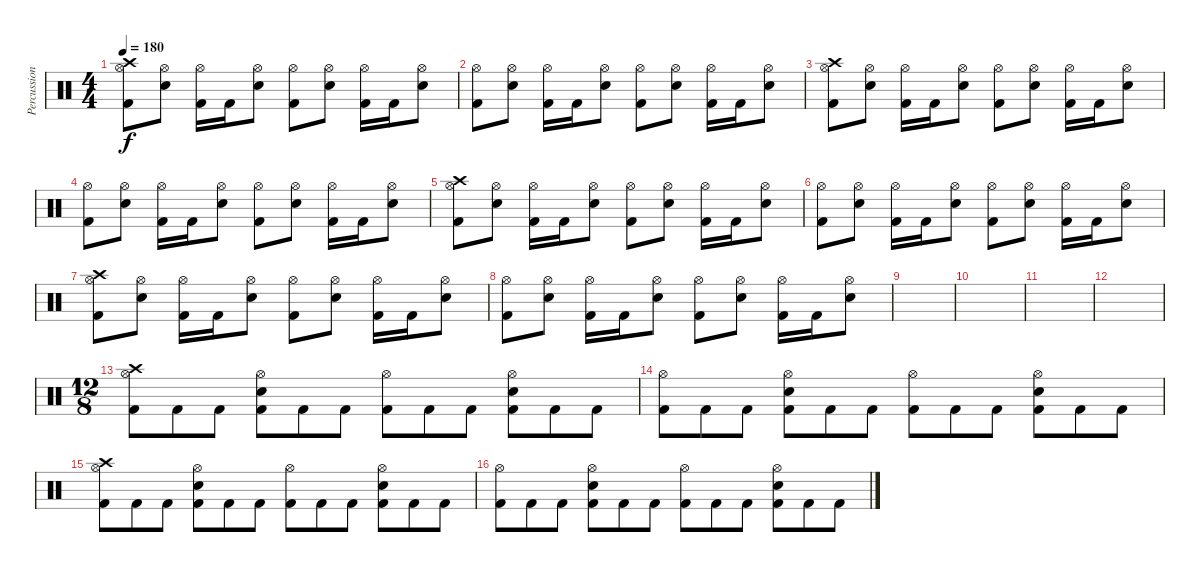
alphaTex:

\track ("Percussion" "Percussion") {instrument percussion}
\staff {score}
\articulation defaults
\ts (4 4)
\tempo 180
\clef neutral
\ks c
("Crash high (hit)" "Hi-Hat (open)" "Kick (hit) 2").8{dy f} ("Hi-Hat (open)" "Snare (hit) 2").8 ("Hi-Hat (open)" "Kick (hit) 2").16 "Kick (hit) 2".16 ("Hi-Hat (open)" "Snare (hit) 2").8 ("Hi-Hat (open)" "Kick (hit) 2").8 ("Hi-Hat (open)" "Snare (hit) 2").8 ("Hi-Hat (open)" "Kick (hit) 2").16 "Kick (hit) 2".16 ("Hi-Hat (open)" "Snare (hit) 2").8 |
("Hi-Hat (open)" "Kick (hit) 2").8 ("Hi-Hat (open)" "Snare (hit) 2").8 ("Hi-Hat (open)" "Kick (hit) 2").16 "Kick (hit) 2".16 ("Hi-Hat (open)" "Snare (hit) 2").8 ("Hi-Hat (open)" "Kick (hit) 2").8 ("Hi-Hat (open)" "Snare (hit) 2").8 ("Hi-Hat (open)" "Kick (hit) 2").16 "Kick (hit) 2".16 ("Hi-Hat (open)" "Snare (hit) 2").8 |
("Crash high (hit)" "Hi-Hat (open)" "Kick (hit) 2").8 ("Hi-Hat (open)" "Snare (hit) 2").8 ("Hi-Hat (open)" "Kick (hit) 2").16 "Kick (hit) 2".16 ("Hi-Hat (open)" "Snare (hit) 2").8 ("Hi-Hat (open)" "Kick (hit) 2").8 ("Hi-Hat (open)" "Snare (hit) 2").8 ("Hi-Hat (open)" "Kick (hit) 2").16 "Kick (hit) 2".16 ("Hi-Hat (open)" "Snare (hit) 2").8 |
("Hi-Hat (open)" "Kick (hit) 2").8 ("Hi-Hat (open)" "Snare (hit) 2").8 ("Hi-Hat (open)" "Kick (hit) 2").16 "Kick (hit) 2".16 ("Hi-Hat (open)" "Snare (hit) 2").8 ("Hi-Hat (open)" "Kick (hit) 2").8 ("Hi-Hat (open)" "Snare (hit) 2").8 ("Hi-Hat (open)" "Kick (hit) 2").16 "Kick (hit) 2".16 ("Hi-Hat (open)" "Snare (hit) 2").8 |
("Crash high (hit)" "Hi-Hat (open)" "Kick (hit) 2").8 ("Hi-Hat (open)" "Snare (hit) 2").8 ("Hi-Hat (open)" "Kick (hit) 2").16 "Kick (hit) 2".16 ("Hi-Hat (open)" "Snare (hit) 2").8 ("Hi-Hat (open)" "Kick (hit) 2").8 ("Hi-Hat (open)" "Snare (hit) 2").8 ("Hi-Hat (open)" "Kick (hit) 2").16 "Kick (hit) 2".16 ("Hi-Hat (open)" "Snare (hit) 2").8 |
("Hi-Hat (open)" "Kick (hit) 2").8 ("Hi-Hat (open)" "Snare (hit) 2").8 ("Hi-Hat (open)" "Kick (hit) 2").16 "Kick (hit) 2".16 ("Hi-Hat (open)" "Snare (hit) 2").8 ("Hi-Hat (open)" "Kick (hit) 2").8 ("Hi-Hat (open)" "Snare (hit) 2").8 ("Hi-Hat (open)" "Kick (hit) 2").16 "Kick (hit) 2".16 ("Hi-Hat (open)" "Snare (hit) 2").8 |
("Crash high (hit)" "Hi-Hat (open)" "Kick (hit) 2").8 ("Hi-Hat (open)" "Snare (hit) 2").8 ("Hi-Hat (open)" "Kick (hit) 2").16 "Kick (hit) 2".16 ("Hi-Hat (open)" "Snare (hit) 2").8 ("Hi-Hat (open)" "Kick (hit) 2").8 ("Hi-Hat (open)" "Snare (hit) 2").8 ("Hi-Hat (open)" "Kick (hit) 2").16 "Kick (hit) 2".16 ("Hi-Hat (open)" "Snare (hit) 2").8 |
("Hi-Hat (open)" "Kick (hit) 2").8 ("Hi-Hat (open)" "Snare (hit) 2").8 ("Hi-Hat (open)" "Kick (hit) 2").16 "Kick (hit) 2".16 ("Hi-Hat (open)" "Snare (hit) 2").8 ("Hi-Hat (open)" "Kick (hit) 2").8 ("Hi-Hat (open)" "Snare (hit) 2").8 ("Hi-Hat (open)" "Kick (hit) 2").16 "Kick (hit) 2".16 ("Hi-Hat (open)" "Snare (hit) 2").8 |
|
|
|
|
\ts (12 8)
("Crash high (hit)" "Hi-Hat (open)" "Kick (hit) 2").8 "Kick (hit) 2".8 "Kick (hit) 2".8 ("Hi-Hat (open)" "Snare (hit) 2" "Kick (hit) 2").8 "Kick (hit) 2".8 "Kick (hit) 2".8 ("Hi-Hat (open)" "Kick (hit) 2").8 "Kick (hit) 2".8 "Kick (hit) 2".8 ("Hi-Hat (open)" "Snare (hit) 2" "Kick (hit) 2").8 "Kick (hit) 2".8 "Kick (hit) 2".8 |
("Hi-Hat (open)" "Kick (hit) 2").8 "Kick (hit) 2".8 "Kick (hit) 2".8 ("Hi-Hat (open)" "Snare (hit) 2" "Kick (hit) 2").8 "Kick (hit) 2".8 "Kick (hit) 2".8 ("Hi-Hat (open)" "Kick (hit) 2").8 "Kick (hit) 2".8 "Kick (hit) 2".8 ("Hi-Hat (open)" "Snare (hit) 2" "Kick (hit) 2").8 "Kick (hit) 2".8 "Kick (hit) 2".8 |
("Crash high (hit)" "Hi-Hat (open)" "Kick (hit) 2").8 "Kick (hit) 2".8 "Kick (hit) 2".8 ("Hi-Hat (open)" "Snare (hit) 2" "Kick (hit) 2").8 "Kick (hit) 2".8 "Kick (hit) 2".8 ("Hi-Hat (open)" "Kick (hit) 2").8 "Kick (hit) 2".8 "Kick (hit) 2".8 ("Hi-Hat (open)" "Snare (hit) 2" "Kick (hit) 2").8 "Kick (hit) 2".8 "Kick (hit) 2".8 |
("Hi-Hat (open)" "Kick (hit) 2").8 "Kick (hit) 2".8 "Kick (hit) 2".8 ("Hi-Hat (open)" "Snare (hit) 2" "Kick (hit) 2").8 "Kick (hit) 2".8 "Kick (hit) 2".8 ("Hi-Hat (open)" "Kick (hit) 2").8 "Kick (hit) 2".8 "Kick (hit) 2".8 ("Hi-Hat (open)" "Snare (hit) 2" "Kick (hit) 2").8 "Kick (hit) 2".8 "Kick (hit) 2".8
